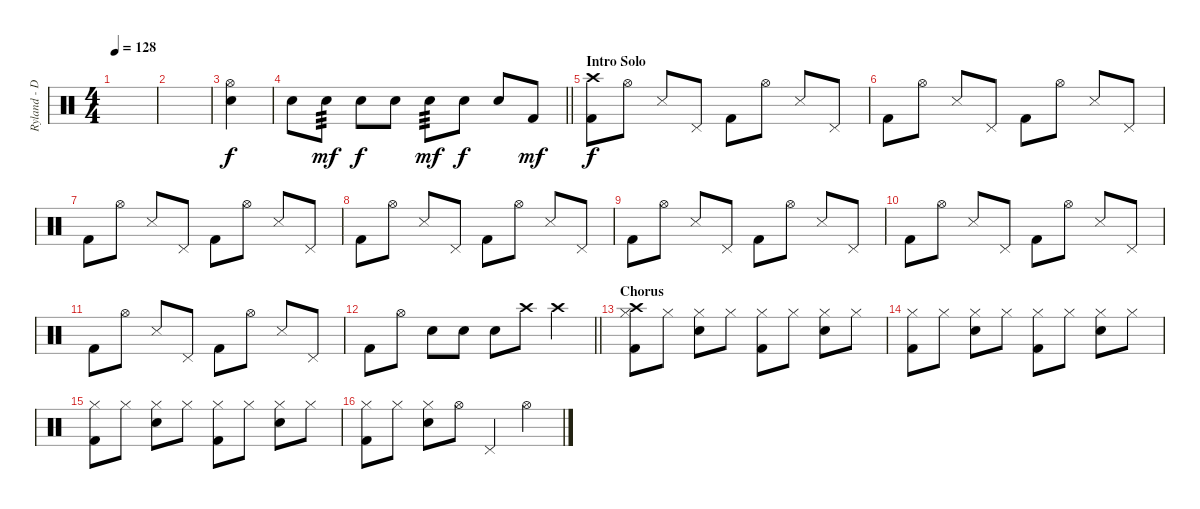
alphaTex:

\track ("Ryland - Drums" "Ryland - D") {instrument percussion}
\staff {score}
\articulation defaults
\ts (4 4)
\tempo 128
\clef neutral
\ks c
|
|
("Hi-Hat (open)" "Electric Snare (hit)").4 |
\barLineRight lightlight "Electric Snare (hit)".8{dy f} "Electric Snare (hit)".8{tp 3 dy mf} "Electric Snare (hit)".8{dy f} "Electric Snare (hit)".8 "Electric Snare (hit)".8{tp 3 dy mf} "Electric Snare (hit)".8{dy f} "Electric Snare (hit)".8 "Kick (hit) 2".8{dy mf}
|
\section ("" "Intro Solo")
("Crash high (hit)" "Kick (hit) 2").8{dy f} "Hi-Hat (open)".8 "Snare (side stick) 3".8 "Pedal Hi-Hat (hit)".8 "Kick (hit) 2".8 "Hi-Hat (open)".8 "Snare (side stick) 3".8 "Pedal Hi-Hat (hit)".8 |
"Kick (hit) 2".8 "Hi-Hat (open)".8 "Snare (side stick) 3".8 "Pedal Hi-Hat (hit)".8 "Kick (hit) 2".8 "Hi-Hat (open)".8 "Snare (side stick) 3".8 "Pedal Hi-Hat (hit)".8 |
"Kick (hit) 2".8 "Hi-Hat (open)".8 "Snare (side stick) 3".8 "Pedal Hi-Hat (hit)".8 "Kick (hit) 2".8 "Hi-Hat (open)".8 "Snare (side stick) 3".8 "Pedal Hi-Hat (hit)".8 |
"Kick (hit) 2".8 "Hi-Hat (open)".8 "Snare (side stick) 3".8 "Pedal Hi-Hat (hit)".8 "Kick (hit) 2".8 "Hi-Hat (open)".8 "Snare (side stick) 3".8 "Pedal Hi-Hat (hit)".8 |
"Kick (hit) 2".8 "Hi-Hat (open)".8 "Snare (side stick) 3".8 "Pedal Hi-Hat (hit)".8 "Kick (hit) 2".8 "Hi-Hat (open)".8 "Snare (side stick) 3".8 "Pedal Hi-Hat (hit)".8 |
"Kick (hit) 2".8 "Hi-Hat (open)".8 "Snare (side stick) 3".8 "Pedal Hi-Hat (hit)".8 "Kick (hit) 2".8 "Hi-Hat (open)".8 "Snare (side stick) 3".8 "Pedal Hi-Hat (hit)".8 |
"Kick (hit) 2".8 "Hi-Hat (open)".8 "Snare (side stick) 3".8 "Pedal Hi-Hat (hit)".8 "Kick (hit) 2".8 "Hi-Hat (open)".8 "Snare (side stick) 3".8 "Pedal Hi-Hat (hit)".8 |
\barLineRight lightlight "Kick (hit) 2".8 "Hi-Hat (open)".8 "Electric Snare (hit)".8 "Electric Snare (hit)".8 "Electric Snare (hit)".8 "Crash high (hit)".8 "Crash high (hit)".4
|
\section ("" "Chorus")
("Hi-Hat (closed)" "Crash high (hit)" "Kick (hit) 2").8 "Hi-Hat (closed)".8 ("Hi-Hat (closed)" "Electric Snare (hit)").8 "Hi-Hat (closed)".8 ("Hi-Hat (closed)" "Kick (hit) 2").8 "Hi-Hat (closed)".8 ("Hi-Hat (closed)" "Electric Snare (hit)").8 "Hi-Hat (closed)".8 |
("Hi-Hat (closed)" "Kick (hit) 2").8 "Hi-Hat (closed)".8 ("Hi-Hat (closed)" "Electric Snare (hit)").8 "Hi-Hat (closed)".8 ("Hi-Hat (closed)" "Kick (hit) 2").8 "Hi-Hat (closed)".8 ("Hi-Hat (closed)" "Electric Snare (hit)").8 "Hi-Hat (closed)".8 |
("Hi-Hat (closed)" "Kick (hit) 2").8 "Hi-Hat (closed)".8 ("Hi-Hat (closed)" "Electric Snare (hit)").8 "Hi-Hat (closed)".8 ("Hi-Hat (closed)" "Kick (hit) 2").8 "Hi-Hat (closed)".8 ("Hi-Hat (closed)" "Electric Snare (hit)").8 "Hi-Hat (closed)".8 |
("Hi-Hat (closed)" "Kick (hit) 2").8 "Hi-Hat (closed)".8 ("Hi-Hat (closed)" "Electric Snare (hit)").8 "Hi-Hat (open)".8 "Pedal Hi-Hat (hit)".4 "Hi-Hat (open)".4
